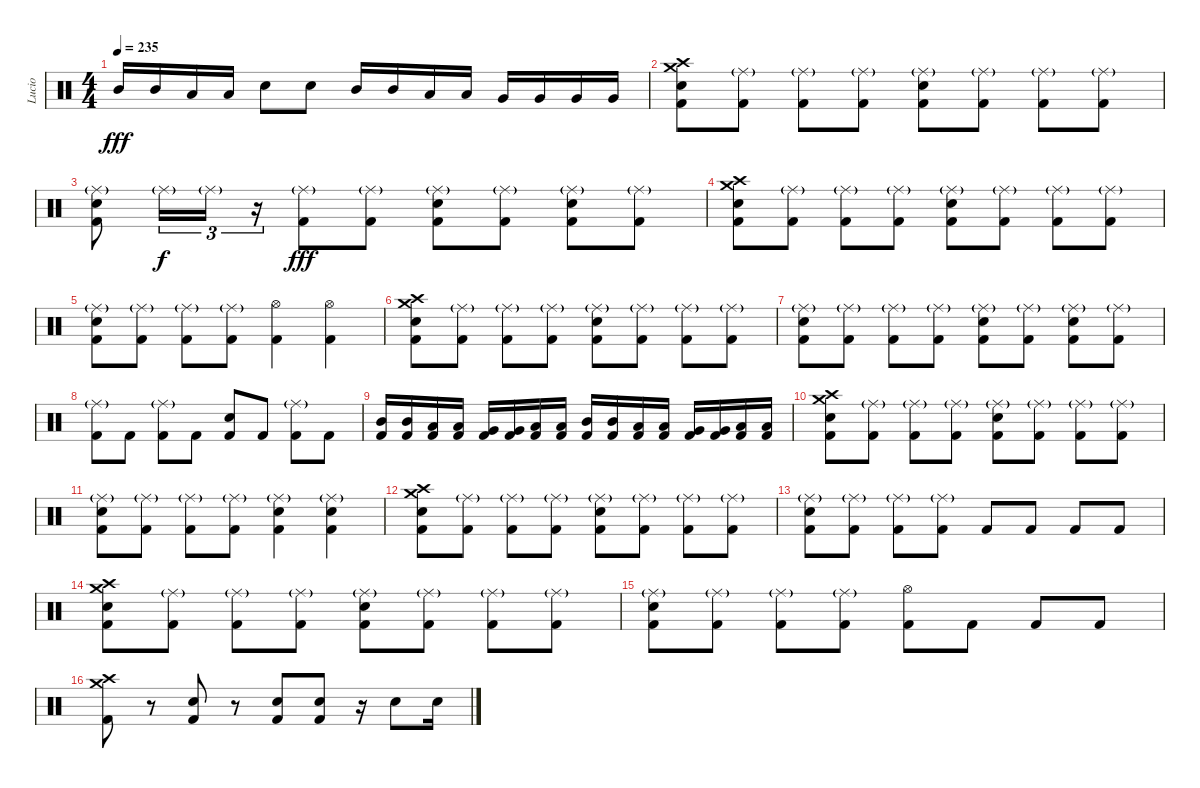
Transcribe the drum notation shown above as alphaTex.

\track ("Lucio" "Lucio") {instrument percussion}
\staff {score}
\articulation defaults
\ts (4 4)
\tempo 235
\clef neutral
\ks c "Mid Tom (hit)".16{dy fff} "Mid Tom (hit)".16 "Low Tom (hit)".16 "Low Tom (hit)".16 "Electric Snare (hit)".8 "Electric Snare (hit)".8 "Mid Tom (hit)".16 "Mid Tom (hit)".16 "Low Tom (hit)".16 "Low Tom (hit)".16 "Very Low Tom (hit)".16 "Very Low Tom (hit)".16 "Very Low Tom (hit)".16 "Very Low Tom (hit)".16
|
("Crash medium (hit)" "Crash high (hit)" "Electric Snare (hit)" "Kick (hit) 2").8 ("Ride (middle)"{g} "Kick (hit) 2").8 ("Ride (middle)"{g} "Kick (hit) 2").8 ("Ride (middle)"{g} "Kick (hit) 2").8 ("Ride (middle)"{g} "Electric Snare (hit)" "Kick (hit) 2").8 ("Ride (middle)"{g} "Kick (hit) 2").8 ("Ride (middle)"{g} "Kick (hit) 2").8 ("Ride (middle)"{g} "Kick (hit) 2").8 |
("Ride (middle)"{g} "Electric Snare (hit)" "Kick (hit) 2").8 "Ride (middle)"{g}.16{tu (3 2) dy f} "Ride (middle)"{g}.16{tu (3 2)} r.16{tu (3 2)} ("Ride (middle)"{g} "Kick (hit) 2").8{dy fff} ("Ride (middle)"{g} "Kick (hit) 2").8 ("Ride (middle)"{g} "Electric Snare (hit)" "Kick (hit) 2").8 ("Ride (middle)"{g} "Kick (hit) 2").8 ("Ride (middle)"{g} "Electric Snare (hit)" "Kick (hit) 2").8 ("Ride (middle)"{g} "Kick (hit) 2").8 |
("Crash medium (hit)" "Crash high (hit)" "Electric Snare (hit)" "Kick (hit) 2").8 ("Ride (middle)"{g} "Kick (hit) 2").8 ("Ride (middle)"{g} "Kick (hit) 2").8 ("Ride (middle)"{g} "Kick (hit) 2").8 ("Ride (middle)"{g} "Electric Snare (hit)" "Kick (hit) 2").8 ("Ride (middle)"{g} "Kick (hit) 2").8 ("Ride (middle)"{g} "Kick (hit) 2").8 ("Ride (middle)"{g} "Kick (hit) 2").8 |
("Ride (middle)"{g} "Electric Snare (hit)" "Kick (hit) 2").8 ("Ride (middle)"{g} "Kick (hit) 2").8 ("Ride (middle)"{g} "Kick (hit) 2").8 ("Ride (middle)"{g} "Kick (hit) 2").8 ("Hi-Hat (open)" "Kick (hit) 2").4 ("Hi-Hat (open)" "Kick (hit) 2").4 |
("Crash medium (hit)" "Crash high (hit)" "Electric Snare (hit)" "Kick (hit) 2").8 ("Ride (middle)"{g} "Kick (hit) 2").8 ("Ride (middle)"{g} "Kick (hit) 2").8 ("Ride (middle)"{g} "Kick (hit) 2").8 ("Ride (middle)"{g} "Electric Snare (hit)" "Kick (hit) 2").8 ("Ride (middle)"{g} "Kick (hit) 2").8 ("Ride (middle)"{g} "Kick (hit) 2").8 ("Ride (middle)"{g} "Kick (hit) 2").8 |
("Ride (middle)"{g} "Electric Snare (hit)" "Kick (hit) 2").8 ("Ride (middle)"{g} "Kick (hit) 2").8 ("Ride (middle)"{g} "Kick (hit) 2").8 ("Ride (middle)"{g} "Kick (hit) 2").8 ("Ride (middle)"{g} "Electric Snare (hit)" "Kick (hit) 2").8 ("Ride (middle)"{g} "Kick (hit) 2").8 ("Ride (middle)"{g} "Electric Snare (hit)" "Kick (hit) 2").8 ("Ride (middle)"{g} "Kick (hit) 2").8 |
("Ride (middle)"{g} "Kick (hit) 2").8 "Kick (hit) 2".8 ("Ride (middle)"{g} "Kick (hit) 2").8 "Kick (hit) 2".8 ("Electric Snare (hit)" "Kick (hit) 2").8 "Kick (hit) 2".8 ("Ride (middle)"{g} "Kick (hit) 2").8 "Kick (hit) 2".8 |
("Mid Tom (hit)" "Kick (hit) 2").16 ("Mid Tom (hit)" "Kick (hit) 2").16 ("Low Tom (hit)" "Kick (hit) 2").16 ("Low Tom (hit)" "Kick (hit) 2").16 ("Very Low Tom (hit)" "Kick (hit) 2").16 ("Very Low Tom (hit)" "Kick (hit) 2").16 ("Low Floor Tom (hit)" "Kick (hit) 2").16 ("Low Floor Tom (hit)" "Kick (hit) 2").16 ("Mid Tom (hit)" "Kick (hit) 2").16 ("Mid Tom (hit)" "Kick (hit) 2").16 ("Low Tom (hit)" "Kick (hit) 2").16 ("Low Tom (hit)" "Kick (hit) 2").16 ("Very Low Tom (hit)" "Kick (hit) 2").16 ("Very Low Tom (hit)" "Kick (hit) 2").16 ("Low Floor Tom (hit)" "Kick (hit) 2").16 ("Low Floor Tom (hit)" "Kick (hit) 2").16 |
("Crash medium (hit)" "Crash high (hit)" "Electric Snare (hit)" "Kick (hit) 2").8 ("Ride (middle)"{g} "Kick (hit) 2").8 ("Ride (middle)"{g} "Kick (hit) 2").8 ("Ride (middle)"{g} "Kick (hit) 2").8 ("Ride (middle)"{g} "Electric Snare (hit)" "Kick (hit) 2").8 ("Ride (middle)"{g} "Kick (hit) 2").8 ("Ride (middle)"{g} "Kick (hit) 2").8 ("Ride (middle)"{g} "Kick (hit) 2").8 |
("Ride (middle)"{g} "Electric Snare (hit)" "Kick (hit) 2").8 ("Ride (middle)"{g} "Kick (hit) 2").8 ("Ride (middle)"{g} "Kick (hit) 2").8 ("Ride (middle)"{g} "Kick (hit) 2").8 ("Ride (middle)"{g} "Electric Snare (hit)" "Kick (hit) 2").4 ("Ride (middle)"{g} "Electric Snare (hit)" "Kick (hit) 2").4 |
("Crash medium (hit)" "Crash high (hit)" "Electric Snare (hit)" "Kick (hit) 2").8 ("Ride (middle)"{g} "Kick (hit) 2").8 ("Ride (middle)"{g} "Kick (hit) 2").8 ("Ride (middle)"{g} "Kick (hit) 2").8 ("Ride (middle)"{g} "Electric Snare (hit)" "Kick (hit) 2").8 ("Ride (middle)"{g} "Kick (hit) 2").8 ("Ride (middle)"{g} "Kick (hit) 2").8 ("Ride (middle)"{g} "Kick (hit) 2").8 |
("Ride (middle)"{g} "Electric Snare (hit)" "Kick (hit) 2").8 ("Ride (middle)"{g} "Kick (hit) 2").8 ("Ride (middle)"{g} "Kick (hit) 2").8 ("Ride (middle)"{g} "Kick (hit) 2").8 "Kick (hit) 2".8 "Kick (hit) 2".8 "Kick (hit) 2".8 "Kick (hit) 2".8 |
("Crash medium (hit)" "Crash high (hit)" "Electric Snare (hit)" "Kick (hit) 2").8 ("Ride (middle)"{g} "Kick (hit) 2").8 ("Ride (middle)"{g} "Kick (hit) 2").8 ("Ride (middle)"{g} "Kick (hit) 2").8 ("Ride (middle)"{g} "Electric Snare (hit)" "Kick (hit) 2").8 ("Ride (middle)"{g} "Kick (hit) 2").8 ("Ride (middle)"{g} "Kick (hit) 2").8 ("Ride (middle)"{g} "Kick (hit) 2").8 |
("Ride (middle)"{g} "Electric Snare (hit)" "Kick (hit) 2").8 ("Ride (middle)"{g} "Kick (hit) 2").8 ("Ride (middle)"{g} "Kick (hit) 2").8 ("Ride (middle)"{g} "Kick (hit) 2").8 ("Hi-Hat (open)" "Kick (hit) 2").8 "Kick (hit) 2".8 "Kick (hit) 2".8 "Kick (hit) 2".8 |
("Crash medium (hit)" "Crash high (hit)" "Kick (hit) 2").8 r.8 ("Electric Snare (hit)" "Kick (hit) 2").8 r.8 ("Electric Snare (hit)" "Kick (hit) 2").8 ("Electric Snare (hit)" "Kick (hit) 2").8 r.16 "Electric Snare (hit)".8 "Electric Snare (hit)".16
